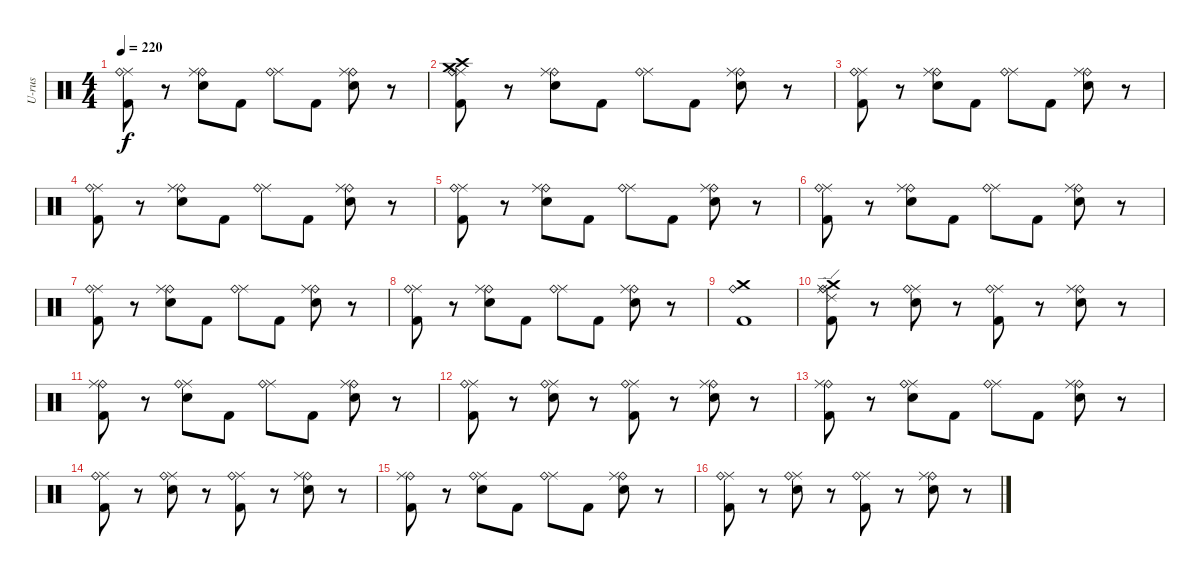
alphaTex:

\track ("U-rus" "U-rus") {instrument percussion}
\staff {score}
\articulation defaults
\ts (4 4)
\tempo 220
\clef neutral
\ks c
("Ride (middle)" "Ride (bell)" "Kick (hit) 2").8{dy f} r.8 ("Ride (bell)" "Ride (middle)" "Snare (hit) 2").8 "Kick (hit) 2".8 ("Ride (middle)" "Ride (bell)").8 "Kick (hit) 2".8 ("Ride (bell)" "Ride (middle)" "Snare (hit) 2").8 r.8 |
("Crash medium (hit)" "Crash high (hit)" "Ride (middle)" "Ride (bell)" "Kick (hit) 2").8 r.8 ("Ride (bell)" "Ride (middle)" "Snare (hit) 2").8 "Kick (hit) 2".8 ("Ride (middle)" "Ride (bell)").8 "Kick (hit) 2".8 ("Ride (bell)" "Ride (middle)" "Snare (hit) 2").8 r.8 |
("Ride (middle)" "Ride (bell)" "Kick (hit) 2").8 r.8 ("Ride (bell)" "Ride (middle)" "Snare (hit) 2").8 "Kick (hit) 2".8 ("Ride (middle)" "Ride (bell)").8 "Kick (hit) 2".8 ("Ride (bell)" "Ride (middle)" "Snare (hit) 2").8 r.8 |
("Ride (middle)" "Ride (bell)" "Kick (hit) 2").8 r.8 ("Ride (bell)" "Ride (middle)" "Snare (hit) 2").8 "Kick (hit) 2".8 ("Ride (middle)" "Ride (bell)").8 "Kick (hit) 2".8 ("Ride (bell)" "Ride (middle)" "Snare (hit) 2").8 r.8 |
("Ride (middle)" "Ride (bell)" "Kick (hit) 2").8 r.8 ("Ride (bell)" "Ride (middle)" "Snare (hit) 2").8 "Kick (hit) 2".8 ("Ride (middle)" "Ride (bell)").8 "Kick (hit) 2".8 ("Ride (bell)" "Ride (middle)" "Snare (hit) 2").8 r.8 |
("Ride (middle)" "Ride (bell)" "Kick (hit) 2").8 r.8 ("Ride (bell)" "Ride (middle)" "Snare (hit) 2").8 "Kick (hit) 2".8 ("Ride (middle)" "Ride (bell)").8 "Kick (hit) 2".8 ("Ride (bell)" "Ride (middle)" "Snare (hit) 2").8 r.8 |
("Ride (middle)" "Ride (bell)" "Kick (hit) 2").8 r.8 ("Ride (bell)" "Ride (middle)" "Snare (hit) 2").8 "Kick (hit) 2".8 ("Ride (middle)" "Ride (bell)").8 "Kick (hit) 2".8 ("Ride (bell)" "Ride (middle)" "Snare (hit) 2").8 r.8 |
("Ride (middle)" "Ride (bell)" "Kick (hit) 2").8 r.8 ("Ride (bell)" "Ride (middle)" "Snare (hit) 2").8 "Kick (hit) 2".8 ("Ride (middle)" "Ride (bell)").8 "Kick (hit) 2".8 ("Ride (bell)" "Ride (middle)" "Snare (hit) 2").8 r.8 |
("Crash medium (hit)" "Ride (bell)" "Kick (hit) 2").1 |
("Ride (edge) 2" "Ride (middle)" "Crash medium (hit)" "Ride (bell)" "Kick (hit) 2").8 r.8 ("Ride (middle)" "Ride (bell)" "Snare (hit) 2").8 r.8 ("Ride (middle)" "Ride (bell)" "Kick (hit) 2").8 r.8 ("Ride (bell)" "Ride (middle)" "Snare (hit) 2").8 r.8 |
("Ride (bell)" "Ride (middle)" "Kick (hit) 2").8 r.8 ("Ride (middle)" "Ride (bell)" "Snare (hit) 2").8 "Kick (hit) 2".8 ("Ride (middle)" "Ride (bell)").8 "Kick (hit) 2".8 ("Ride (bell)" "Ride (middle)" "Snare (hit) 2").8 r.8 |
("Ride (middle)" "Ride (bell)" "Kick (hit) 2").8 r.8 ("Ride (middle)" "Ride (bell)" "Snare (hit) 2").8 r.8 ("Ride (middle)" "Ride (bell)" "Kick (hit) 2").8 r.8 ("Ride (bell)" "Ride (middle)" "Snare (hit) 2").8 r.8 |
("Ride (bell)" "Ride (middle)" "Kick (hit) 2").8 r.8 ("Ride (middle)" "Ride (bell)" "Snare (hit) 2").8 "Kick (hit) 2".8 ("Ride (middle)" "Ride (bell)").8 "Kick (hit) 2".8 ("Ride (bell)" "Ride (middle)" "Snare (hit) 2").8 r.8 |
("Ride (middle)" "Ride (bell)" "Kick (hit) 2").8 r.8 ("Ride (middle)" "Ride (bell)" "Snare (hit) 2").8 r.8 ("Ride (middle)" "Ride (bell)" "Kick (hit) 2").8 r.8 ("Ride (bell)" "Ride (middle)" "Snare (hit) 2").8 r.8 |
("Ride (bell)" "Ride (middle)" "Kick (hit) 2").8 r.8 ("Ride (middle)" "Ride (bell)" "Snare (hit) 2").8 "Kick (hit) 2".8 ("Ride (middle)" "Ride (bell)").8 "Kick (hit) 2".8 ("Ride (bell)" "Ride (middle)" "Snare (hit) 2").8 r.8 |
("Ride (middle)" "Ride (bell)" "Kick (hit) 2").8 r.8 ("Ride (middle)" "Ride (bell)" "Snare (hit) 2").8 r.8 ("Ride (middle)" "Ride (bell)" "Kick (hit) 2").8 r.8 ("Ride (bell)" "Ride (middle)" "Snare (hit) 2").8 r.8
